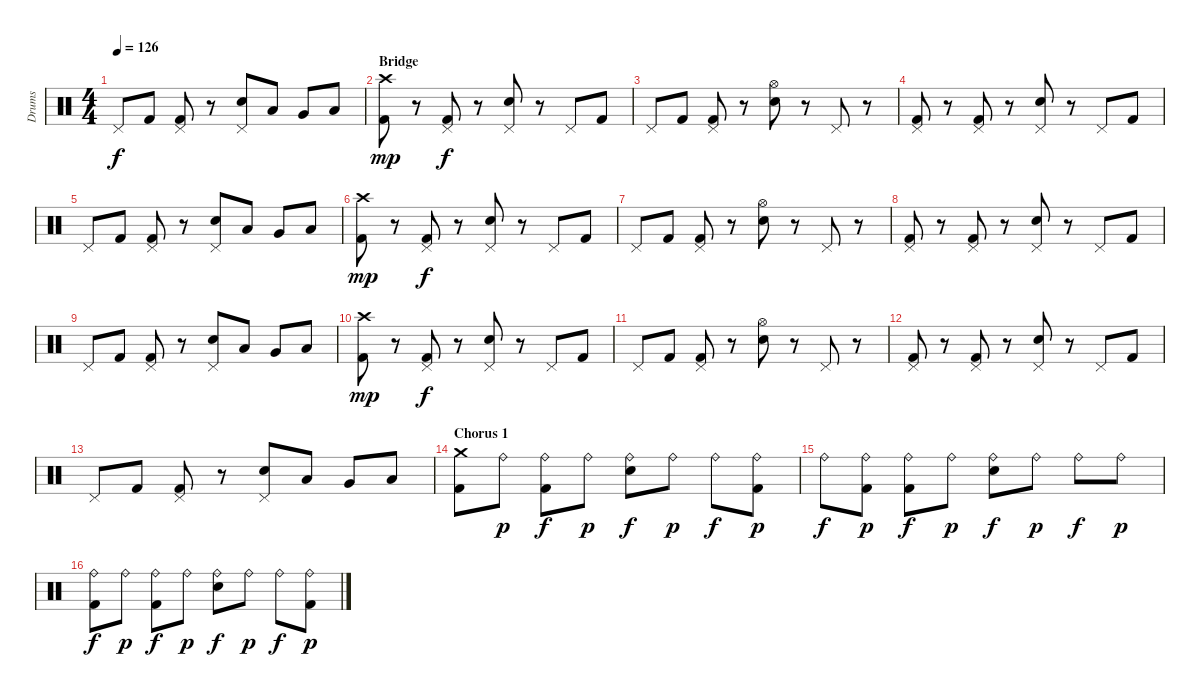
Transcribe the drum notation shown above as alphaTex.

\track ("Drums" "Drums") {instrument percussion}
\staff {score}
\articulation defaults
\ts (4 4)
\tempo 126
\clef neutral
\ks c "Pedal Hi-Hat (hit)".8{dy f} "Kick (hit) 2".8
("Pedal Hi-Hat (hit)" "Kick (hit) 2").8 r.8 ("Pedal Hi-Hat (hit)" "Electric Snare (hit)").8 "Low Tom (hit)".8 "Very Low Tom (hit)".8 "Low Floor Tom (hit)".8 |
\section ("" "Bridge")
("Crash high (hit)" "Kick (hit) 2").8{dy mp} r.8 ("Pedal Hi-Hat (hit)" "Kick (hit) 2").8{dy f} r.8 ("Pedal Hi-Hat (hit)" "Electric Snare (hit)").8 r.8 "Pedal Hi-Hat (hit)".8 "Kick (hit) 2".8 |
"Pedal Hi-Hat (hit)".8 "Kick (hit) 2".8 ("Pedal Hi-Hat (hit)" "Kick (hit) 2").8 r.8 ("Hi-Hat (open)" "Electric Snare (hit)").8 r.8 "Pedal Hi-Hat (hit)".8 r.8 |
("Pedal Hi-Hat (hit)" "Kick (hit) 2").8 r.8 ("Pedal Hi-Hat (hit)" "Kick (hit) 2").8 r.8 ("Pedal Hi-Hat (hit)" "Electric Snare (hit)").8 r.8 "Pedal Hi-Hat (hit)".8 "Kick (hit) 2".8 |
"Pedal Hi-Hat (hit)".8 "Kick (hit) 2".8 ("Pedal Hi-Hat (hit)" "Kick (hit) 2").8 r.8 ("Pedal Hi-Hat (hit)" "Electric Snare (hit)").8 "Low Tom (hit)".8 "Very Low Tom (hit)".8 "Low Floor Tom (hit)".8 |
("Crash high (hit)" "Kick (hit) 2").8{dy mp} r.8 ("Pedal Hi-Hat (hit)" "Kick (hit) 2").8{dy f} r.8 ("Pedal Hi-Hat (hit)" "Electric Snare (hit)").8 r.8 "Pedal Hi-Hat (hit)".8 "Kick (hit) 2".8 |
"Pedal Hi-Hat (hit)".8 "Kick (hit) 2".8 ("Pedal Hi-Hat (hit)" "Kick (hit) 2").8 r.8 ("Hi-Hat (open)" "Electric Snare (hit)").8 r.8 "Pedal Hi-Hat (hit)".8 r.8 |
("Pedal Hi-Hat (hit)" "Kick (hit) 2").8 r.8 ("Pedal Hi-Hat (hit)" "Kick (hit) 2").8 r.8 ("Pedal Hi-Hat (hit)" "Electric Snare (hit)").8 r.8 "Pedal Hi-Hat (hit)".8 "Kick (hit) 2".8 |
"Pedal Hi-Hat (hit)".8 "Kick (hit) 2".8 ("Pedal Hi-Hat (hit)" "Kick (hit) 2").8 r.8 ("Pedal Hi-Hat (hit)" "Electric Snare (hit)").8 "Low Tom (hit)".8 "Very Low Tom (hit)".8 "Low Floor Tom (hit)".8 |
("Crash high (hit)" "Kick (hit) 2").8{dy mp} r.8 ("Pedal Hi-Hat (hit)" "Kick (hit) 2").8{dy f} r.8 ("Pedal Hi-Hat (hit)" "Electric Snare (hit)").8 r.8 "Pedal Hi-Hat (hit)".8 "Kick (hit) 2".8 |
"Pedal Hi-Hat (hit)".8 "Kick (hit) 2".8 ("Pedal Hi-Hat (hit)" "Kick (hit) 2").8 r.8 ("Hi-Hat (open)" "Electric Snare (hit)").8 r.8 "Pedal Hi-Hat (hit)".8 r.8 |
("Pedal Hi-Hat (hit)" "Kick (hit) 2").8 r.8 ("Pedal Hi-Hat (hit)" "Kick (hit) 2").8 r.8 ("Pedal Hi-Hat (hit)" "Electric Snare (hit)").8 r.8 "Pedal Hi-Hat (hit)".8 "Kick (hit) 2".8 |
"Pedal Hi-Hat (hit)".8 "Kick (hit) 2".8 ("Pedal Hi-Hat (hit)" "Kick (hit) 2").8 r.8 ("Pedal Hi-Hat (hit)" "Electric Snare (hit)").8 "Low Tom (hit)".8 "Very Low Tom (hit)".8 "Low Floor Tom (hit)".8 |
\section ("" "Chorus 1")
("Crash medium (hit)" "Kick (hit) 2").8 "Ride (bell)".8{dy p} ("Ride (bell)" "Kick (hit) 2").8{dy f} "Ride (bell)".8{dy p} ("Ride (bell)" "Electric Snare (hit)").8{dy f} "Ride (bell)".8{dy p} "Ride (bell)".8{dy f} ("Ride (bell)" "Kick (hit) 2").8{dy p} |
"Ride (bell)".8{dy f} ("Ride (bell)" "Kick (hit) 2").8{dy p} ("Ride (bell)" "Kick (hit) 2").8{dy f} "Ride (bell)".8{dy p} ("Ride (bell)" "Electric Snare (hit)").8{dy f} "Ride (bell)".8{dy p} "Ride (bell)".8{dy f} "Ride (bell)".8{dy p} |
("Ride (bell)" "Kick (hit) 2").8{dy f} "Ride (bell)".8{dy p} ("Ride (bell)" "Kick (hit) 2").8{dy f} "Ride (bell)".8{dy p} ("Ride (bell)" "Electric Snare (hit)").8{dy f} "Ride (bell)".8{dy p} "Ride (bell)".8{dy f} ("Ride (bell)" "Kick (hit) 2").8{dy p}
